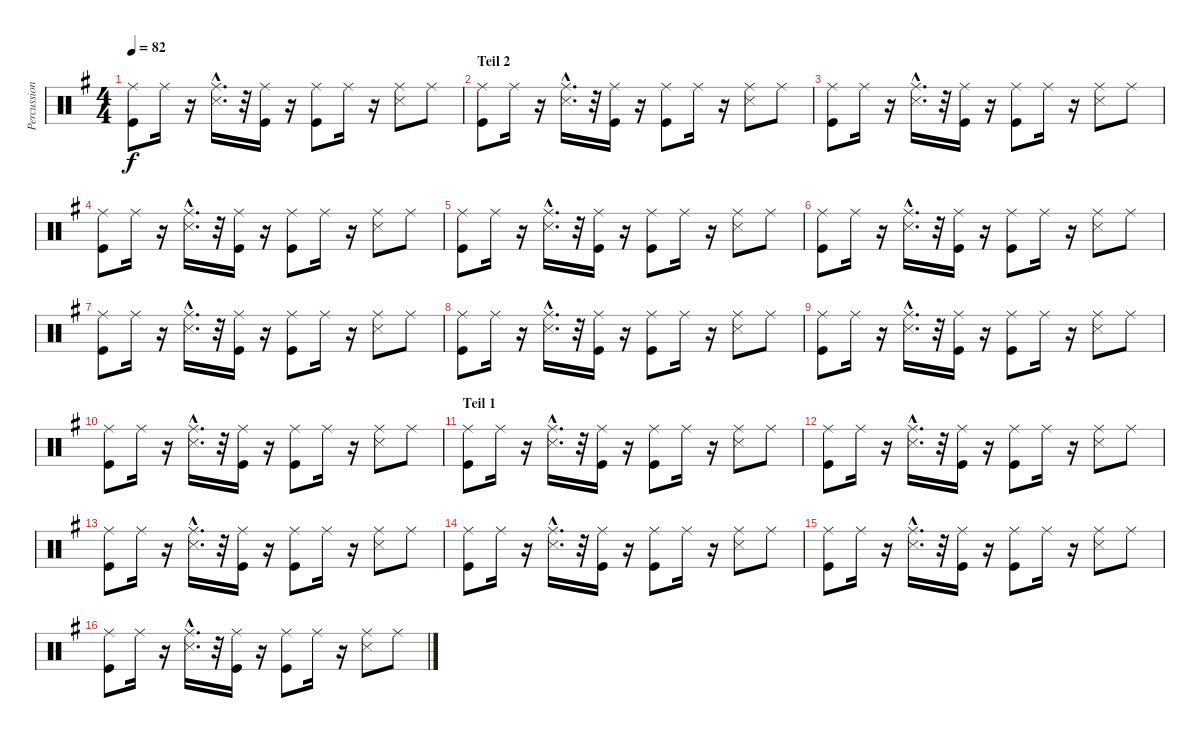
\track ("Percussion" "Percussion") {instrument percussion}
\staff {score}
\articulation defaults
\ts (4 4)
\tempo 82
\clef neutral
\ks g
("Kick (hit)" "Ride (middle)").8{dy f} "Ride (middle)".16 r.16 ("Snare (side stick) 3"{hac} "Ride (middle)"{hac}).16{d} r.32 ("Ride (middle)" "Kick (hit)").16 r.16 ("Ride (middle)" "Kick (hit)").8 "Ride (middle)".16 r.16 ("Snare (side stick) 3" "Ride (middle)").8 "Ride (middle)".8 |
\section ("" "Teil 2")
("Kick (hit)" "Ride (middle)").8 "Ride (middle)".16 r.16 ("Snare (side stick) 3"{hac} "Ride (middle)"{hac}).16{d} r.32 ("Ride (middle)" "Kick (hit)").16 r.16 ("Ride (middle)" "Kick (hit)").8 "Ride (middle)".16 r.16 ("Snare (side stick) 3" "Ride (middle)").8 "Ride (middle)".8 |
("Kick (hit)" "Ride (middle)").8 "Ride (middle)".16 r.16 ("Snare (side stick) 3"{hac} "Ride (middle)"{hac}).16{d} r.32 ("Ride (middle)" "Kick (hit)").16 r.16 ("Ride (middle)" "Kick (hit)").8 "Ride (middle)".16 r.16 ("Snare (side stick) 3" "Ride (middle)").8 "Ride (middle)".8 |
("Kick (hit)" "Ride (middle)").8 "Ride (middle)".16 r.16 ("Snare (side stick) 3"{hac} "Ride (middle)"{hac}).16{d} r.32 ("Ride (middle)" "Kick (hit)").16 r.16 ("Ride (middle)" "Kick (hit)").8 "Ride (middle)".16 r.16 ("Snare (side stick) 3" "Ride (middle)").8 "Ride (middle)".8 |
("Kick (hit)" "Ride (middle)").8 "Ride (middle)".16 r.16 ("Snare (side stick) 3"{hac} "Ride (middle)"{hac}).16{d} r.32 ("Ride (middle)" "Kick (hit)").16 r.16 ("Ride (middle)" "Kick (hit)").8 "Ride (middle)".16 r.16 ("Snare (side stick) 3" "Ride (middle)").8 "Ride (middle)".8 |
("Kick (hit)" "Ride (middle)").8 "Ride (middle)".16 r.16 ("Snare (side stick) 3"{hac} "Ride (middle)"{hac}).16{d} r.32 ("Ride (middle)" "Kick (hit)").16 r.16 ("Ride (middle)" "Kick (hit)").8 "Ride (middle)".16 r.16 ("Snare (side stick) 3" "Ride (middle)").8 "Ride (middle)".8 |
("Kick (hit)" "Ride (middle)").8 "Ride (middle)".16 r.16 ("Snare (side stick) 3"{hac} "Ride (middle)"{hac}).16{d} r.32 ("Ride (middle)" "Kick (hit)").16 r.16 ("Ride (middle)" "Kick (hit)").8 "Ride (middle)".16 r.16 ("Snare (side stick) 3" "Ride (middle)").8 "Ride (middle)".8 |
("Kick (hit)" "Ride (middle)").8 "Ride (middle)".16 r.16 ("Snare (side stick) 3"{hac} "Ride (middle)"{hac}).16{d} r.32 ("Ride (middle)" "Kick (hit)").16 r.16 ("Ride (middle)" "Kick (hit)").8 "Ride (middle)".16 r.16 ("Snare (side stick) 3" "Ride (middle)").8 "Ride (middle)".8 |
("Kick (hit)" "Ride (middle)").8 "Ride (middle)".16 r.16 ("Snare (side stick) 3"{hac} "Ride (middle)"{hac}).16{d} r.32 ("Ride (middle)" "Kick (hit)").16 r.16 ("Ride (middle)" "Kick (hit)").8 "Ride (middle)".16 r.16 ("Snare (side stick) 3" "Ride (middle)").8 "Ride (middle)".8 |
("Kick (hit)" "Ride (middle)").8 "Ride (middle)".16 r.16 ("Snare (side stick) 3"{hac} "Ride (middle)"{hac}).16{d} r.32 ("Ride (middle)" "Kick (hit)").16 r.16 ("Ride (middle)" "Kick (hit)").8 "Ride (middle)".16 r.16 ("Snare (side stick) 3" "Ride (middle)").8 "Ride (middle)".8 |
\section ("" "Teil 1")
("Kick (hit)" "Ride (middle)").8 "Ride (middle)".16 r.16 ("Snare (side stick) 3"{hac} "Ride (middle)"{hac}).16{d} r.32 ("Ride (middle)" "Kick (hit)").16 r.16 ("Ride (middle)" "Kick (hit)").8 "Ride (middle)".16 r.16 ("Snare (side stick) 3" "Ride (middle)").8 "Ride (middle)".8 |
("Kick (hit)" "Ride (middle)").8 "Ride (middle)".16 r.16 ("Snare (side stick) 3"{hac} "Ride (middle)"{hac}).16{d} r.32 ("Ride (middle)" "Kick (hit)").16 r.16 ("Ride (middle)" "Kick (hit)").8 "Ride (middle)".16 r.16 ("Snare (side stick) 3" "Ride (middle)").8 "Ride (middle)".8 |
("Kick (hit)" "Ride (middle)").8 "Ride (middle)".16 r.16 ("Snare (side stick) 3"{hac} "Ride (middle)"{hac}).16{d} r.32 ("Ride (middle)" "Kick (hit)").16 r.16 ("Ride (middle)" "Kick (hit)").8 "Ride (middle)".16 r.16 ("Snare (side stick) 3" "Ride (middle)").8 "Ride (middle)".8 |
("Kick (hit)" "Ride (middle)").8 "Ride (middle)".16 r.16 ("Snare (side stick) 3"{hac} "Ride (middle)"{hac}).16{d} r.32 ("Ride (middle)" "Kick (hit)").16 r.16 ("Ride (middle)" "Kick (hit)").8 "Ride (middle)".16 r.16 ("Snare (side stick) 3" "Ride (middle)").8 "Ride (middle)".8 |
("Kick (hit)" "Ride (middle)").8 "Ride (middle)".16 r.16 ("Snare (side stick) 3"{hac} "Ride (middle)"{hac}).16{d} r.32 ("Ride (middle)" "Kick (hit)").16 r.16 ("Ride (middle)" "Kick (hit)").8 "Ride (middle)".16 r.16 ("Snare (side stick) 3" "Ride (middle)").8 "Ride (middle)".8 |
("Kick (hit)" "Ride (middle)").8 "Ride (middle)".16 r.16 ("Snare (side stick) 3"{hac} "Ride (middle)"{hac}).16{d} r.32 ("Ride (middle)" "Kick (hit)").16 r.16 ("Ride (middle)" "Kick (hit)").8 "Ride (middle)".16 r.16 ("Snare (side stick) 3" "Ride (middle)").8 "Ride (middle)".8
